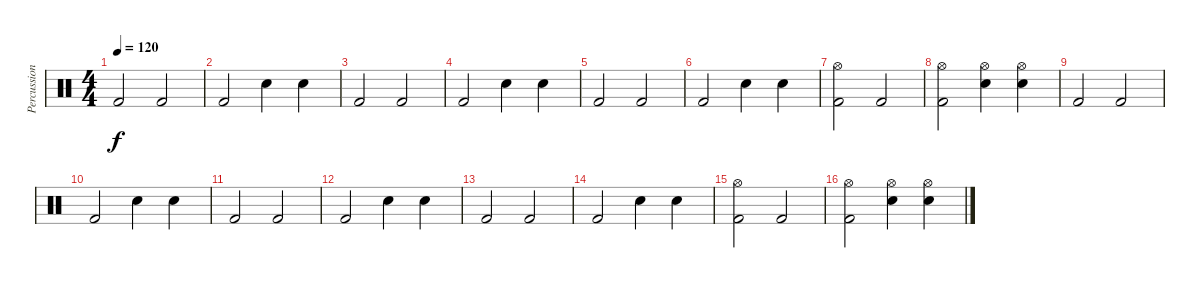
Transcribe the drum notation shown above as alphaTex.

\track ("Percussion" "Percussion") {instrument percussion}
\staff {score}
\articulation defaults
\ts (4 4)
\tempo 120
\clef neutral
\ks c "Kick (hit) 2".2{dy f} "Kick (hit) 2".2
|
"Kick (hit) 2".2 "Snare (hit) 2".4 "Snare (hit) 2".4 |
"Kick (hit) 2".2 "Kick (hit) 2".2 |
"Kick (hit) 2".2 "Snare (hit) 2".4 "Snare (hit) 2".4 |
"Kick (hit) 2".2 "Kick (hit) 2".2 |
"Kick (hit) 2".2 "Snare (hit) 2".4 "Snare (hit) 2".4 |
("Kick (hit) 2" "Hi-Hat (open)").2 "Kick (hit) 2".2 |
("Kick (hit) 2" "Hi-Hat (open)").2 ("Snare (hit) 2" "Hi-Hat (open)").4 ("Snare (hit) 2" "Hi-Hat (open)").4 |
"Kick (hit) 2".2 "Kick (hit) 2".2 |
"Kick (hit) 2".2 "Snare (hit) 2".4 "Snare (hit) 2".4 |
"Kick (hit) 2".2 "Kick (hit) 2".2 |
"Kick (hit) 2".2 "Snare (hit) 2".4 "Snare (hit) 2".4 |
"Kick (hit) 2".2 "Kick (hit) 2".2 |
"Kick (hit) 2".2 "Snare (hit) 2".4 "Snare (hit) 2".4 |
("Kick (hit) 2" "Hi-Hat (open)").2 "Kick (hit) 2".2 |
("Kick (hit) 2" "Hi-Hat (open)").2 ("Snare (hit) 2" "Hi-Hat (open)").4 ("Snare (hit) 2" "Hi-Hat (open)").4
